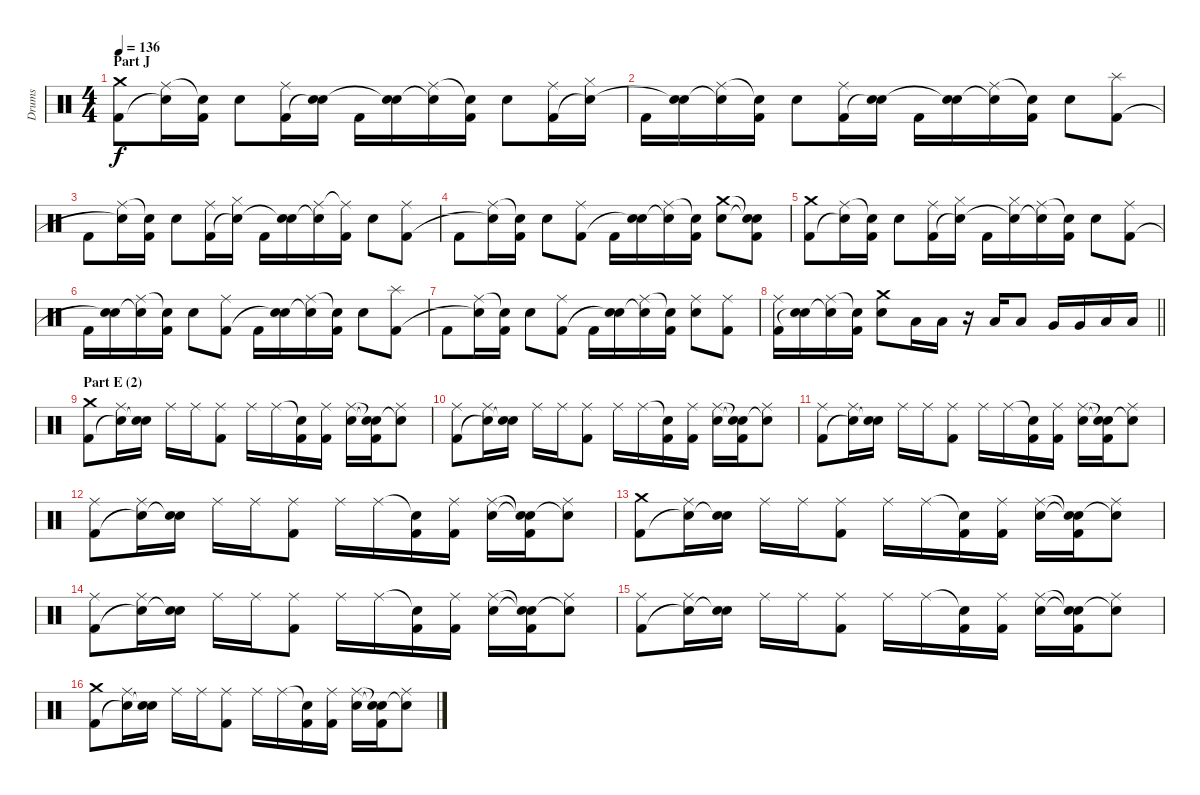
\track ("Drums" "Drums") {instrument percussion}
\staff {score}
\articulation defaults
\ts (4 4)
\section ("" "Part J")
\tempo 136
\clef neutral
\ks c
("Crash medium (hit)" "Kick (hit) 2").8{dy f} ("Ride (middle)" "Snare (hit)"{t}).16 ("Snare (hit)"{t} "Kick (hit) 2").16 "Electric Snare (hit)".8 ("Ride (middle)" "Kick (hit) 2").16 ("Electric Snare (hit)" "Snare (hit)"{t}).16 "Kick (hit) 2".16 ("Electric Snare (hit)" "Snare (hit)"{t}).16 ("Ride (middle)" "Snare (hit)"{t}).16 ("Snare (hit)"{t} "Kick (hit) 2").16 "Electric Snare (hit)".8 ("Ride (middle)" "Kick (hit) 2").16 ("Hi-Hat (closed)" "Snare (hit)"{t}).16 |
"Kick (hit) 2".16 ("Electric Snare (hit)" "Snare (hit)"{t}).16 ("Ride (middle)" "Snare (hit)"{t}).16 ("Snare (hit)"{t} "Kick (hit) 2").16 "Electric Snare (hit)".8 ("Ride (middle)" "Kick (hit) 2").16 ("Electric Snare (hit)" "Snare (hit)"{t}).16 "Kick (hit) 2".16 ("Electric Snare (hit)" "Snare (hit)"{t}).16 ("Ride (middle)" "Snare (hit)"{t}).16 ("Snare (hit)"{t} "Kick (hit) 2").16 "Electric Snare (hit)".8 ("Splash (hit)" "Kick (hit) 2").8 |
"Kick (hit) 2".8 ("Ride (middle)" "Snare (hit)"{t}).16 ("Snare (hit)"{t} "Kick (hit) 2").16 "Electric Snare (hit)".8 ("Ride (middle)" "Kick (hit) 2").16 ("Hi-Hat (closed)" "Snare (hit)"{t}).16 "Kick (hit) 2".16 ("Electric Snare (hit)" "Snare (hit)"{t}).16 ("Ride (middle)" "Snare (hit)"{t}).16 ("Ride (middle)"{t} "Kick (hit) 2").16 "Electric Snare (hit)".8 ("Ride (middle)" "Kick (hit) 2").8 |
"Kick (hit) 2".8 ("Ride (middle)" "Snare (hit)"{t}).16 ("Snare (hit)"{t} "Kick (hit) 2").16 "Electric Snare (hit)".8 ("Ride (middle)" "Kick (hit) 2").8 "Kick (hit) 2".16 ("Electric Snare (hit)" "Snare (hit)"{t}).16 ("Ride (middle)" "Snare (hit)"{t}).16 ("Snare (hit)"{t} "Kick (hit) 2").16 ("Crash medium (hit)" "Electric Snare (hit)").8 ("Snare (hit)"{t} "Snare (hit)"{t} "Kick (hit) 2").8 |
("Crash medium (hit)" "Kick (hit) 2").8 ("Ride (middle)" "Snare (hit)"{t}).16 ("Snare (hit)"{t} "Kick (hit) 2").16 "Electric Snare (hit)".8 ("Ride (middle)" "Kick (hit) 2").16 ("Hi-Hat (closed)" "Snare (hit)"{t}).16 "Kick (hit) 2".16 ("Hi-Hat (closed)" "Snare (hit)"{t}).16 ("Ride (middle)" "Snare (hit)"{t}).16 ("Snare (hit)"{t} "Kick (hit) 2").16 "Electric Snare (hit)".8 ("Ride (middle)" "Kick (hit) 2").8 |
"Kick (hit) 2".16 ("Electric Snare (hit)" "Snare (hit)"{t}).16 ("Ride (middle)" "Snare (hit)"{t}).16 ("Snare (hit)"{t} "Kick (hit) 2").16 "Electric Snare (hit)".8 ("Ride (middle)" "Kick (hit) 2").8 "Kick (hit) 2".16 ("Electric Snare (hit)" "Snare (hit)"{t}).16 ("Ride (middle)" "Snare (hit)"{t}).16 ("Snare (hit)"{t} "Kick (hit) 2").16 "Electric Snare (hit)".8 ("Splash (hit)" "Kick (hit) 2").8 |
"Kick (hit) 2".8 ("Ride (middle)" "Snare (hit)"{t}).16 ("Snare (hit)"{t} "Kick (hit) 2").16 "Electric Snare (hit)".8 ("Ride (middle)" "Kick (hit) 2").8 "Kick (hit) 2".16 ("Electric Snare (hit)" "Snare (hit)"{t}).16 ("Ride (middle)" "Snare (hit)"{t}).16 ("Snare (hit)"{t} "Kick (hit) 2").16 ("Ride (middle)" "Electric Snare (hit)").8 ("Ride (middle)" "Kick (hit) 2").8 |
\barLineRight lightlight
("Ride (middle)" "Kick (hit) 2").16 ("Electric Snare (hit)" "Snare (hit)"{t}).16 ("Ride (middle)" "Snare (hit)"{t}).16 ("Snare (hit)"{t} "Kick (hit) 2").16 ("Crash medium (hit)" "Electric Snare (hit)").8 "Low Tom (hit)".16 "Low Tom (hit)".16 r.16 "Low Tom (hit)".16 "Low Tom (hit)".8 "Very Low Tom (hit)".16 "Very Low Tom (hit)".16 "Low Floor Tom (hit)".16 "Low Floor Tom (hit)".16 |
\section ("" "Part E (2)")
("Crash medium (hit)" "Kick (hit) 2").8 ("Ride (middle)" "Snare (hit)"{t}).16 ("Electric Snare (hit)" "Snare (hit)"{t}).16 "Ride (middle)".16 "Ride (middle)".16 ("Ride (middle)" "Kick (hit) 2").8 "Ride (middle)".16 "Ride (middle)".16 ("Snare (hit)"{t} "Kick (hit) 2").16 ("Ride (middle)" "Kick (hit) 2").16 ("Ride (middle)" "Electric Snare (hit)").16 ("Snare (hit)"{t} "Snare (hit)"{t} "Kick (hit) 2").16 ("Ride (middle)" "Snare (hit)"{t}).8 |
("Ride (middle)" "Kick (hit) 2").8 ("Ride (middle)" "Snare (hit)"{t}).16 ("Electric Snare (hit)" "Snare (hit)"{t}).16 "Ride (middle)".16 "Ride (middle)".16 ("Ride (middle)" "Kick (hit) 2").8 "Ride (middle)".16 "Ride (middle)".16 ("Snare (hit)"{t} "Kick (hit) 2").16 ("Ride (middle)" "Kick (hit) 2").16 ("Ride (middle)" "Electric Snare (hit)").16 ("Snare (hit)"{t} "Snare (hit)"{t} "Kick (hit) 2").16 ("Ride (middle)" "Snare (hit)"{t}).8 |
("Ride (middle)" "Kick (hit) 2").8 ("Ride (middle)" "Snare (hit)"{t}).16 ("Electric Snare (hit)" "Snare (hit)"{t}).16 "Ride (middle)".16 "Ride (middle)".16 ("Ride (middle)" "Kick (hit) 2").8 "Ride (middle)".16 "Ride (middle)".16 ("Snare (hit)"{t} "Kick (hit) 2").16 ("Ride (middle)" "Kick (hit) 2").16 ("Ride (middle)" "Electric Snare (hit)").16 ("Snare (hit)"{t} "Snare (hit)"{t} "Kick (hit) 2").16 ("Ride (middle)" "Snare (hit)"{t}).8 |
("Ride (middle)" "Kick (hit) 2").8 ("Ride (middle)" "Snare (hit)"{t}).16 ("Electric Snare (hit)" "Snare (hit)"{t}).16 "Ride (middle)".16 "Ride (middle)".16 ("Ride (middle)" "Kick (hit) 2").8 "Ride (middle)".16 "Ride (middle)".16 ("Snare (hit)"{t} "Kick (hit) 2").16 ("Ride (middle)" "Kick (hit) 2").16 ("Ride (middle)" "Electric Snare (hit)").16 ("Snare (hit)"{t} "Snare (hit)"{t} "Kick (hit) 2").16 ("Ride (middle)" "Snare (hit)"{t}).8 |
("Crash medium (hit)" "Kick (hit) 2").8 ("Ride (middle)" "Snare (hit)"{t}).16 ("Electric Snare (hit)" "Snare (hit)"{t}).16 "Ride (middle)".16 "Ride (middle)".16 ("Ride (middle)" "Kick (hit) 2").8 "Ride (middle)".16 "Ride (middle)".16 ("Snare (hit)"{t} "Kick (hit) 2").16 ("Ride (middle)" "Kick (hit) 2").16 ("Ride (middle)" "Electric Snare (hit)").16 ("Snare (hit)"{t} "Snare (hit)"{t} "Kick (hit) 2").16 ("Ride (middle)" "Snare (hit)"{t}).8 |
("Ride (middle)" "Kick (hit) 2").8 ("Ride (middle)" "Snare (hit)"{t}).16 ("Electric Snare (hit)" "Snare (hit)"{t}).16 "Ride (middle)".16 "Ride (middle)".16 ("Ride (middle)" "Kick (hit) 2").8 "Ride (middle)".16 "Ride (middle)".16 ("Snare (hit)"{t} "Kick (hit) 2").16 ("Ride (middle)" "Kick (hit) 2").16 ("Ride (middle)" "Electric Snare (hit)").16 ("Snare (hit)"{t} "Snare (hit)"{t} "Kick (hit) 2").16 ("Ride (middle)" "Snare (hit)"{t}).8 |
("Ride (middle)" "Kick (hit) 2").8 ("Ride (middle)" "Snare (hit)"{t}).16 ("Electric Snare (hit)" "Snare (hit)"{t}).16 "Ride (middle)".16 "Ride (middle)".16 ("Ride (middle)" "Kick (hit) 2").8 "Ride (middle)".16 "Ride (middle)".16 ("Snare (hit)"{t} "Kick (hit) 2").16 ("Ride (middle)" "Kick (hit) 2").16 ("Ride (middle)" "Electric Snare (hit)").16 ("Snare (hit)"{t} "Snare (hit)"{t} "Kick (hit) 2").16 ("Ride (middle)" "Snare (hit)"{t}).8 |
("Crash medium (hit)" "Kick (hit) 2").8 ("Ride (middle)" "Snare (hit)"{t}).16 ("Electric Snare (hit)" "Snare (hit)"{t}).16 "Ride (middle)".16 "Ride (middle)".16 ("Ride (middle)" "Kick (hit) 2").8 "Ride (middle)".16 "Ride (middle)".16 ("Snare (hit)"{t} "Kick (hit) 2").16 ("Ride (middle)" "Kick (hit) 2").16 ("Ride (middle)" "Electric Snare (hit)").16 ("Snare (hit)"{t} "Snare (hit)"{t} "Kick (hit) 2").16 ("Ride (middle)" "Snare (hit)"{t}).8
